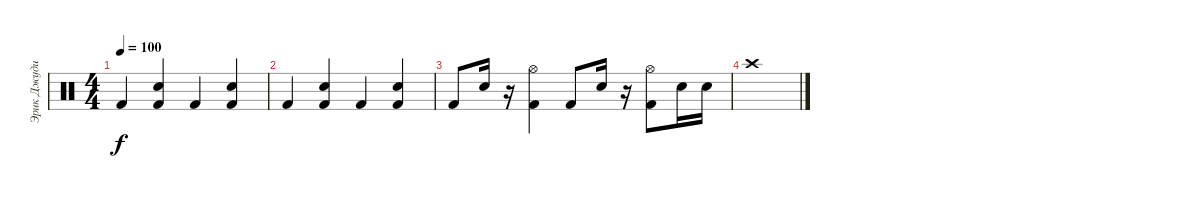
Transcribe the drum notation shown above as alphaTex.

\track ("Эрик Джуди" "Эрик Джуди") {instrument percussion}
\staff {score}
\articulation defaults
\ts (4 4)
\tempo 100
\clef neutral
\ks c "Kick (hit) 2".4{dy f}
("Electric Snare (hit)" "Kick (hit) 2").4 "Kick (hit) 2".4 ("Electric Snare (hit)" "Kick (hit) 2").4 |
"Kick (hit) 2".4 ("Electric Snare (hit)" "Kick (hit) 2").4 "Kick (hit) 2".4 ("Electric Snare (hit)" "Kick (hit) 2").4 |
"Kick (hit) 2".8 "Electric Snare (hit)".16 r.16 ("Hi-Hat (open)" "Kick (hit) 2").4 "Kick (hit) 2".8 "Electric Snare (hit)".16 r.16 ("Hi-Hat (open)" "Kick (hit) 2").8 "Electric Snare (hit)".16 "Electric Snare (hit)".16 |
"Crash high (hit)".1
